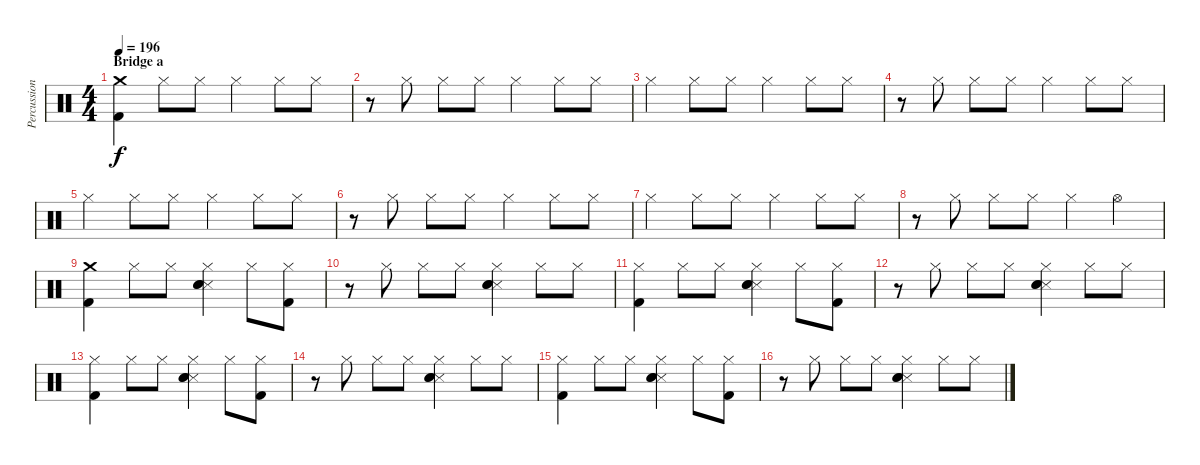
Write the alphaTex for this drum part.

\track ("Percussion" "Percussion") {instrument percussion}
\staff {score}
\articulation defaults
\ts (4 4)
\section ("" "Bridge a")
\tempo 196
\clef neutral
\ks c
("Crash medium (hit)" "Kick (hit) 2").4{dy f} "Hi-Hat (closed)".8 "Hi-Hat (closed)".8 "Hi-Hat (closed)".4 "Hi-Hat (closed)".8 "Hi-Hat (closed)".8 |
r.8 "Hi-Hat (closed)".8 "Hi-Hat (closed)".8 "Hi-Hat (closed)".8 "Hi-Hat (closed)".4 "Hi-Hat (closed)".8 "Hi-Hat (closed)".8 |
"Hi-Hat (closed)".4 "Hi-Hat (closed)".8 "Hi-Hat (closed)".8 "Hi-Hat (closed)".4 "Hi-Hat (closed)".8 "Hi-Hat (closed)".8 |
r.8 "Hi-Hat (closed)".8 "Hi-Hat (closed)".8 "Hi-Hat (closed)".8 "Hi-Hat (closed)".4 "Hi-Hat (closed)".8 "Hi-Hat (closed)".8 |
"Hi-Hat (closed)".4 "Hi-Hat (closed)".8 "Hi-Hat (closed)".8 "Hi-Hat (closed)".4 "Hi-Hat (closed)".8 "Hi-Hat (closed)".8 |
r.8 "Hi-Hat (closed)".8 "Hi-Hat (closed)".8 "Hi-Hat (closed)".8 "Hi-Hat (closed)".4 "Hi-Hat (closed)".8 "Hi-Hat (closed)".8 |
"Hi-Hat (closed)".4 "Hi-Hat (closed)".8 "Hi-Hat (closed)".8 "Hi-Hat (closed)".4 "Hi-Hat (closed)".8 "Hi-Hat (closed)".8 |
r.8 "Hi-Hat (closed)".8 "Hi-Hat (closed)".8 "Hi-Hat (closed)".8 "Hi-Hat (closed)".4 "Hi-Hat (open)".4 |
("Crash medium (hit)" "Kick (hit) 2").4 "Hi-Hat (closed)".8 "Hi-Hat (closed)".8 ("Hi-Hat (closed)" "Snare (side stick) 3" "Hand Clap (hit)" "Hand Clap (hit)").4 "Hi-Hat (closed)".8 ("Hi-Hat (closed)" "Kick (hit) 2").8 |
r.8 "Hi-Hat (closed)".8 "Hi-Hat (closed)".8 "Hi-Hat (closed)".8 ("Hi-Hat (closed)" "Snare (side stick) 3" "Hand Clap (hit)" "Hand Clap (hit)").4 "Hi-Hat (closed)".8 "Hi-Hat (closed)".8 |
("Hi-Hat (closed)" "Kick (hit) 2").4 "Hi-Hat (closed)".8 "Hi-Hat (closed)".8 ("Hi-Hat (closed)" "Snare (side stick) 3" "Hand Clap (hit)" "Hand Clap (hit)").4 "Hi-Hat (closed)".8 ("Hi-Hat (closed)" "Kick (hit) 2").8 |
r.8 "Hi-Hat (closed)".8 "Hi-Hat (closed)".8 "Hi-Hat (closed)".8 ("Hi-Hat (closed)" "Snare (side stick) 3" "Hand Clap (hit)" "Hand Clap (hit)").4 "Hi-Hat (closed)".8 "Hi-Hat (closed)".8 |
("Hi-Hat (closed)" "Kick (hit) 2").4 "Hi-Hat (closed)".8 "Hi-Hat (closed)".8 ("Hi-Hat (closed)" "Snare (side stick) 3" "Hand Clap (hit)" "Hand Clap (hit)").4 "Hi-Hat (closed)".8 ("Hi-Hat (closed)" "Kick (hit) 2").8 |
r.8 "Hi-Hat (closed)".8 "Hi-Hat (closed)".8 "Hi-Hat (closed)".8 ("Hi-Hat (closed)" "Snare (side stick) 3" "Hand Clap (hit)" "Hand Clap (hit)").4 "Hi-Hat (closed)".8 "Hi-Hat (closed)".8 |
("Hi-Hat (closed)" "Kick (hit) 2").4 "Hi-Hat (closed)".8 "Hi-Hat (closed)".8 ("Hi-Hat (closed)" "Snare (side stick) 3" "Hand Clap (hit)" "Hand Clap (hit)").4 "Hi-Hat (closed)".8 ("Hi-Hat (closed)" "Kick (hit) 2").8 |
r.8 "Hi-Hat (closed)".8 "Hi-Hat (closed)".8 "Hi-Hat (closed)".8 ("Hi-Hat (closed)" "Snare (side stick) 3" "Hand Clap (hit)" "Hand Clap (hit)").4 "Hi-Hat (closed)".8 "Hi-Hat (closed)".8
